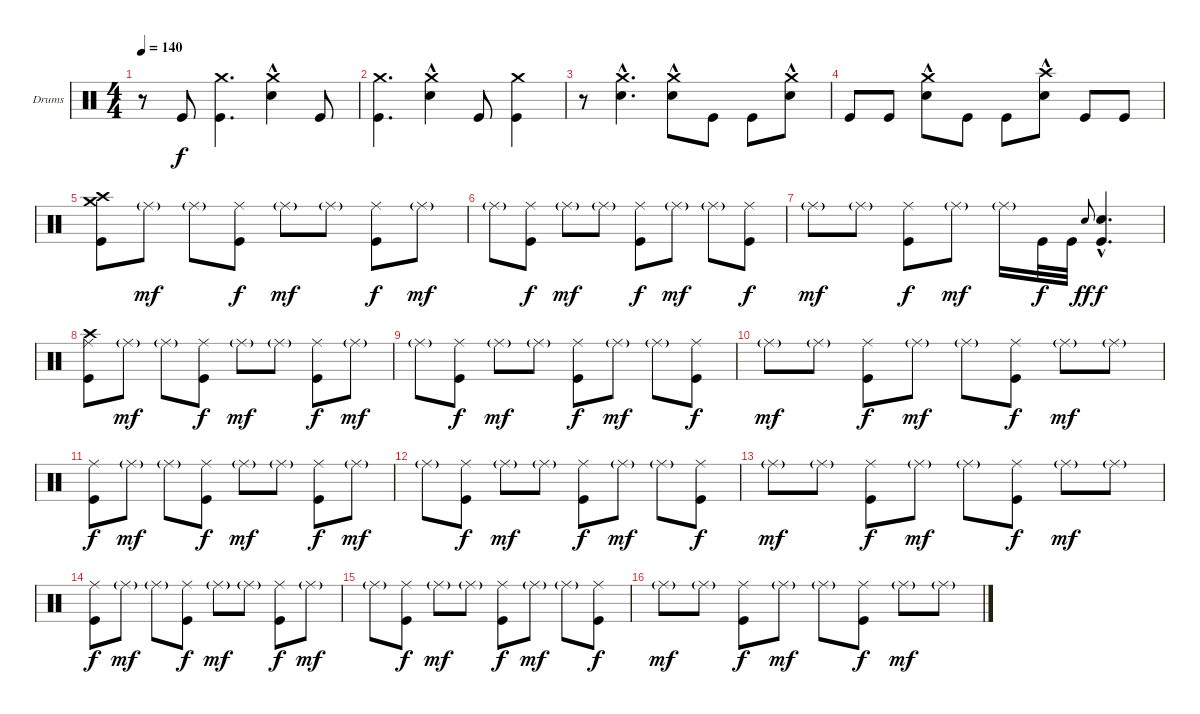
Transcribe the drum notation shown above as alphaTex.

\bracketExtendMode groupsimilarinstruments
\firstSystemTrackNameOrientation horizontal
\otherSystemsTrackNameOrientation horizontal
\track ("Drumkit (Christoph)" "Drums") {instrument percussion}
\staff {score}
\articulation defaults
\ts (4 4)
\tempo 140
\clef neutral
\ks c
r.8{dy f} "Kick (hit)".8 ("Crash medium (hit)" "Kick (hit)").4{d} ("Crash medium (hit)" "Snare (hit) 2"{hac}).4 "Kick (hit)".8 |
("Crash medium (hit)" "Kick (hit)").4{d} ("Crash medium (hit)" "Snare (hit) 2"{hac}).4 "Kick (hit)".8 ("Crash medium (hit)" "Kick (hit)").4 |
r.8 ("Crash medium (hit)" "Snare (hit) 2"{hac}).4{d} ("Crash medium (hit)" "Snare (hit) 2"{hac}).8 "Kick (hit)".8 "Kick (hit)".8 ("Crash medium (hit)" "Snare (hit) 2"{hac}).8 |
"Kick (hit)".8 "Kick (hit)".8 ("Crash medium (hit)" "Snare (hit) 2"{hac}).8 "Kick (hit)".8 "Kick (hit)".8 ("Crash high (hit)" "Snare (hit) 2"{hac}).8 "Kick (hit)".8 "Kick (hit)".8 |
("Crash medium (hit)" "Kick (hit)" "Crash high (hit)").8 "Ride (middle)"{g}.8{dy mf} "Ride (middle)"{g}.8 ("Ride (middle)" "Kick (hit)").8{dy f} "Ride (middle)"{g}.8{dy mf} "Ride (middle)"{g}.8 ("Ride (middle)" "Kick (hit)").8{dy f} "Ride (middle)"{g}.8{dy mf} |
"Ride (middle)"{g}.8 ("Ride (middle)" "Kick (hit)").8{dy f} "Ride (middle)"{g}.8{dy mf} "Ride (middle)"{g}.8 ("Ride (middle)" "Kick (hit)").8{dy f} "Ride (middle)"{g}.8{dy mf} "Ride (middle)"{g}.8 ("Ride (middle)" "Kick (hit)").8{dy f} |
"Ride (middle)"{g}.8{dy mf} "Ride (middle)"{g}.8 ("Ride (middle)" "Kick (hit)").8{dy f} "Ride (middle)"{g}.8{dy mf} "Ride (middle)"{g}.16 "Kick (hit)".32{dy f} "Kick (hit)".32 "Snare (hit) 2".8{gr onbeat dy ff} ("Kick (hit)" "Snare (hit) 2"{hac}).4{d dy f} |
("Ride (middle)" "Kick (hit)" "Crash high (hit)").8 "Ride (middle)"{g}.8{dy mf} "Ride (middle)"{g}.8 ("Ride (middle)" "Kick (hit)").8{dy f} "Ride (middle)"{g}.8{dy mf} "Ride (middle)"{g}.8 ("Ride (middle)" "Kick (hit)").8{dy f} "Ride (middle)"{g}.8{dy mf} |
"Ride (middle)"{g}.8 ("Ride (middle)" "Kick (hit)").8{dy f} "Ride (middle)"{g}.8{dy mf} "Ride (middle)"{g}.8 ("Ride (middle)" "Kick (hit)").8{dy f} "Ride (middle)"{g}.8{dy mf} "Ride (middle)"{g}.8 ("Ride (middle)" "Kick (hit)").8{dy f} |
"Ride (middle)"{g}.8{dy mf} "Ride (middle)"{g}.8 ("Ride (middle)" "Kick (hit)").8{dy f} "Ride (middle)"{g}.8{dy mf} "Ride (middle)"{g}.8 ("Ride (middle)" "Kick (hit)").8{dy f} "Ride (middle)"{g}.8{dy mf} "Ride (middle)"{g}.8 |
("Ride (middle)" "Kick (hit)").8{dy f} "Ride (middle)"{g}.8{dy mf} "Ride (middle)"{g}.8 ("Ride (middle)" "Kick (hit)").8{dy f} "Ride (middle)"{g}.8{dy mf} "Ride (middle)"{g}.8 ("Ride (middle)" "Kick (hit)").8{dy f} "Ride (middle)"{g}.8{dy mf} |
"Ride (middle)"{g}.8 ("Ride (middle)" "Kick (hit)").8{dy f} "Ride (middle)"{g}.8{dy mf} "Ride (middle)"{g}.8 ("Ride (middle)" "Kick (hit)").8{dy f} "Ride (middle)"{g}.8{dy mf} "Ride (middle)"{g}.8 ("Ride (middle)" "Kick (hit)").8{dy f} |
"Ride (middle)"{g}.8{dy mf} "Ride (middle)"{g}.8 ("Ride (middle)" "Kick (hit)").8{dy f} "Ride (middle)"{g}.8{dy mf} "Ride (middle)"{g}.8 ("Ride (middle)" "Kick (hit)").8{dy f} "Ride (middle)"{g}.8{dy mf} "Ride (middle)"{g}.8 |
("Ride (middle)" "Kick (hit)").8{dy f} "Ride (middle)"{g}.8{dy mf} "Ride (middle)"{g}.8 ("Ride (middle)" "Kick (hit)").8{dy f} "Ride (middle)"{g}.8{dy mf} "Ride (middle)"{g}.8 ("Ride (middle)" "Kick (hit)").8{dy f} "Ride (middle)"{g}.8{dy mf} |
"Ride (middle)"{g}.8 ("Ride (middle)" "Kick (hit)").8{dy f} "Ride (middle)"{g}.8{dy mf} "Ride (middle)"{g}.8 ("Ride (middle)" "Kick (hit)").8{dy f} "Ride (middle)"{g}.8{dy mf} "Ride (middle)"{g}.8 ("Ride (middle)" "Kick (hit)").8{dy f} |
"Ride (middle)"{g}.8{dy mf} "Ride (middle)"{g}.8 ("Ride (middle)" "Kick (hit)").8{dy f} "Ride (middle)"{g}.8{dy mf} "Ride (middle)"{g}.8 ("Ride (middle)" "Kick (hit)").8{dy f} "Ride (middle)"{g}.8{dy mf} "Ride (middle)"{g}.8
